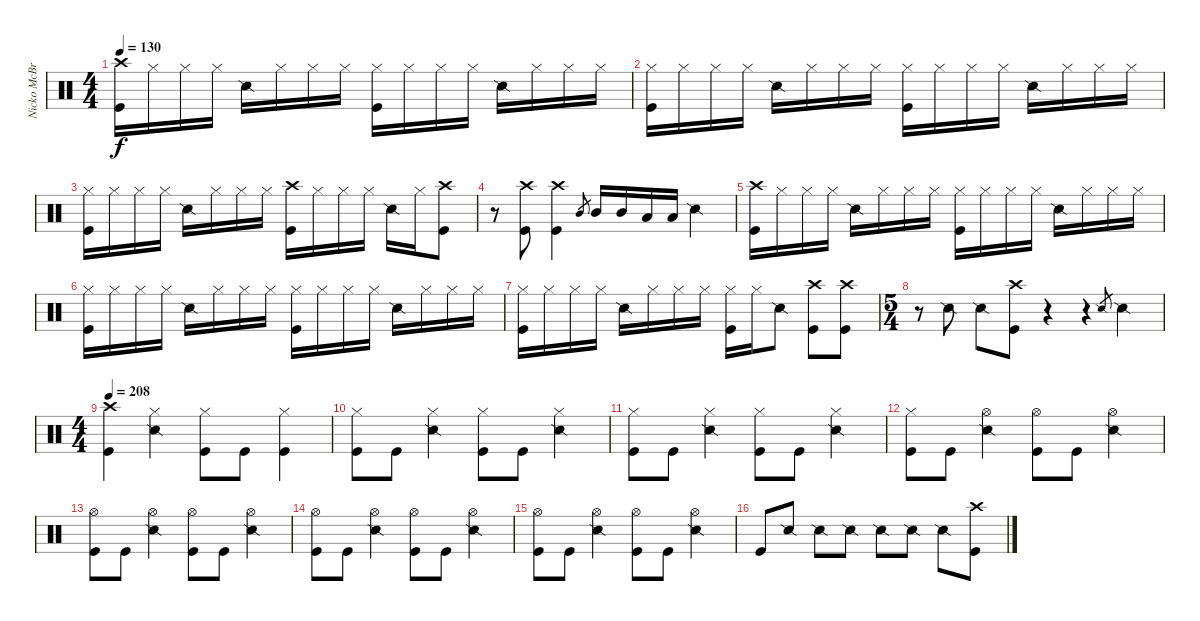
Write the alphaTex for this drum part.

\track ("Nicko McBrain" "Nicko McBr") {instrument percussion}
\staff {score}
\articulation defaults
\ts (4 4)
\tempo 130
\clef neutral
\ks c
("Crash high (hit)" "Kick (hit)").16{dy f} "Hi-Hat (closed)".16 "Hi-Hat (closed)".16 "Hi-Hat (closed)".16 "Snare (side stick) 2".16 "Hi-Hat (closed)".16 "Hi-Hat (closed)".16 "Hi-Hat (closed)".16 ("Hi-Hat (closed)" "Kick (hit)").16 "Hi-Hat (closed)".16 "Hi-Hat (closed)".16 "Hi-Hat (closed)".16 "Snare (side stick) 2".16 "Hi-Hat (closed)".16 "Hi-Hat (closed)".16 "Hi-Hat (closed)".16 |
("Hi-Hat (closed)" "Kick (hit)").16 "Hi-Hat (closed)".16 "Hi-Hat (closed)".16 "Hi-Hat (closed)".16 "Snare (side stick) 2".16 "Hi-Hat (closed)".16 "Hi-Hat (closed)".16 "Hi-Hat (closed)".16 ("Hi-Hat (closed)" "Kick (hit)").16 "Hi-Hat (closed)".16 "Hi-Hat (closed)".16 "Hi-Hat (closed)".16 "Snare (side stick) 2".16 "Hi-Hat (closed)".16 "Hi-Hat (closed)".16 "Hi-Hat (closed)".16 |
("Hi-Hat (closed)" "Kick (hit)").16 "Hi-Hat (closed)".16 "Hi-Hat (closed)".16 "Hi-Hat (closed)".16 "Snare (side stick) 2".16 "Hi-Hat (closed)".16 "Hi-Hat (closed)".16 "Hi-Hat (closed)".16 ("Crash high (hit)" "Kick (hit)").16 "Hi-Hat (closed)".16 "Hi-Hat (closed)".16 "Hi-Hat (closed)".16 "Snare (side stick) 2".16 "Hi-Hat (closed)".16 ("Crash high (hit)" "Kick (hit)").8 |
r.8 ("Crash high (hit)" "Kick (hit)").8 ("Crash high (hit)" "Kick (hit)").4 "Mid Tom (hit)".8{gr} "Mid Tom (hit)".16 "Mid Tom (hit)".16 "Low Tom (hit)".16 "Low Tom (hit)".16 "Snare (side stick) 2".4 |
("Crash high (hit)" "Kick (hit)").16 "Hi-Hat (closed)".16 "Hi-Hat (closed)".16 "Hi-Hat (closed)".16 "Snare (side stick) 2".16 "Hi-Hat (closed)".16 "Hi-Hat (closed)".16 "Hi-Hat (closed)".16 ("Hi-Hat (closed)" "Kick (hit)").16 "Hi-Hat (closed)".16 "Hi-Hat (closed)".16 "Hi-Hat (closed)".16 "Snare (side stick) 2".16 "Hi-Hat (closed)".16 "Hi-Hat (closed)".16 "Hi-Hat (closed)".16 |
("Hi-Hat (closed)" "Kick (hit)").16 "Hi-Hat (closed)".16 "Hi-Hat (closed)".16 "Hi-Hat (closed)".16 "Snare (side stick) 2".16 "Hi-Hat (closed)".16 "Hi-Hat (closed)".16 "Hi-Hat (closed)".16 ("Hi-Hat (closed)" "Kick (hit)").16 "Hi-Hat (closed)".16 "Hi-Hat (closed)".16 "Hi-Hat (closed)".16 "Snare (side stick) 2".16 "Hi-Hat (closed)".16 "Hi-Hat (closed)".16 "Hi-Hat (closed)".16 |
("Hi-Hat (closed)" "Kick (hit)").16 "Hi-Hat (closed)".16 "Hi-Hat (closed)".16 "Hi-Hat (closed)".16 "Snare (side stick) 2".16 "Hi-Hat (closed)".16 "Hi-Hat (closed)".16 "Hi-Hat (closed)".16 ("Hi-Hat (closed)" "Kick (hit)").16 "Hi-Hat (closed)".16 "Snare (side stick) 2".8 ("Crash high (hit)" "Kick (hit)").8 ("Crash high (hit)" "Kick (hit)").8 |
\ts (5 4)
r.8 "Snare (side stick) 2".8 "Snare (side stick) 2".8 ("Crash high (hit)" "Kick (hit)").8 r.4 r.4 "Snare (side stick) 2".8{gr} "Snare (side stick) 2".4 |
\ts (4 4)
\tempo 208
("Crash high (hit)" "Kick (hit)").4 ("Hi-Hat (closed)" "Snare (side stick) 2").4 ("Hi-Hat (closed)" "Kick (hit)").8 "Kick (hit)".8 ("Hi-Hat (closed)" "Kick (hit)").4 |
("Hi-Hat (closed)" "Kick (hit)").8 "Kick (hit)".8 ("Hi-Hat (closed)" "Snare (side stick) 2").4 ("Hi-Hat (closed)" "Kick (hit)").8 "Kick (hit)".8 ("Hi-Hat (closed)" "Snare (side stick) 2").4 |
("Hi-Hat (closed)" "Kick (hit)").8 "Kick (hit)".8 ("Hi-Hat (closed)" "Snare (side stick) 2").4 ("Hi-Hat (closed)" "Kick (hit)").8 "Kick (hit)".8 ("Hi-Hat (closed)" "Snare (side stick) 2").4 |
("Hi-Hat (closed)" "Kick (hit)").8 "Kick (hit)".8 ("Hi-Hat (open)" "Snare (side stick) 2").4 ("Hi-Hat (open)" "Kick (hit)").8 "Kick (hit)".8 ("Hi-Hat (open)" "Snare (side stick) 2").4 |
("Hi-Hat (open)" "Kick (hit)").8 "Kick (hit)".8 ("Hi-Hat (open)" "Snare (side stick) 2").4 ("Hi-Hat (open)" "Kick (hit)").8 "Kick (hit)".8 ("Hi-Hat (open)" "Snare (side stick) 2").4 |
("Hi-Hat (open)" "Kick (hit)").8 "Kick (hit)".8 ("Hi-Hat (open)" "Snare (side stick) 2").4 ("Hi-Hat (open)" "Kick (hit)").8 "Kick (hit)".8 ("Hi-Hat (open)" "Snare (side stick) 2").4 |
("Hi-Hat (open)" "Kick (hit)").8 "Kick (hit)".8 ("Hi-Hat (open)" "Snare (side stick) 2").4 ("Hi-Hat (open)" "Kick (hit)").8 "Kick (hit)".8 ("Hi-Hat (open)" "Snare (side stick) 2").4 |
"Kick (hit)".8 "Snare (side stick) 2".8 "Snare (side stick) 2".8 "Snare (side stick) 2".8 "Snare (side stick) 2".8 "Snare (side stick) 2".8 "Snare (side stick) 2".8 ("Crash high (hit)" "Kick (hit)").8
